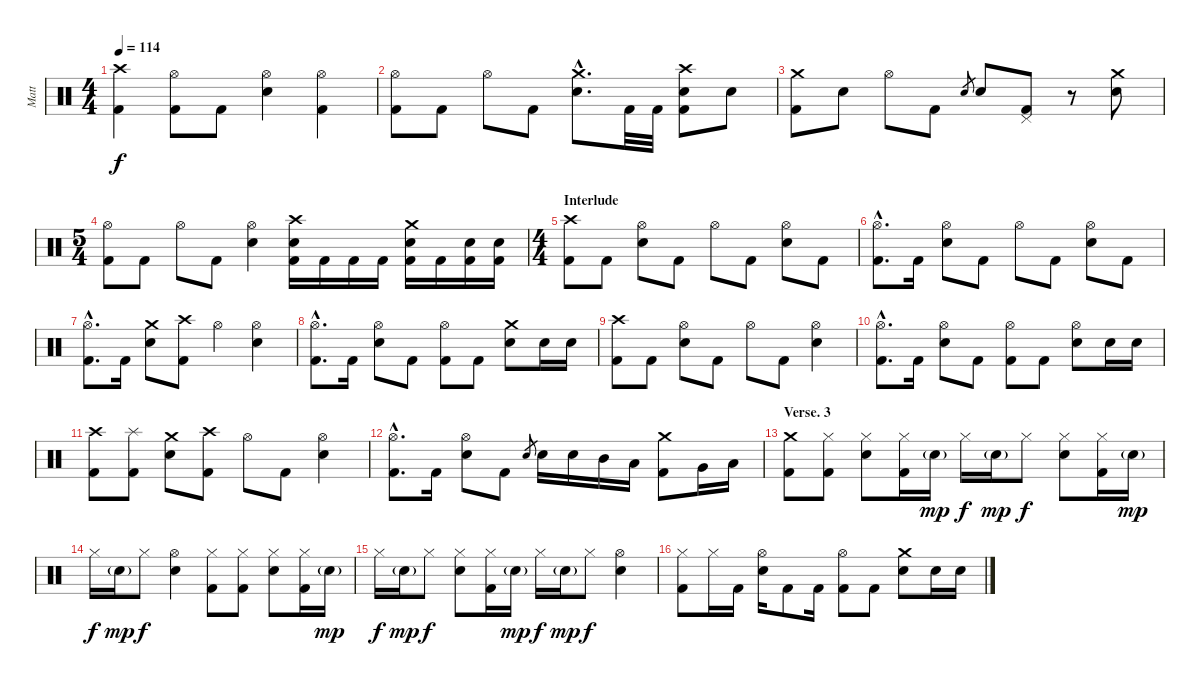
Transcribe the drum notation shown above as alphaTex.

\track ("Matt" "Matt") {instrument percussion}
\staff {score}
\articulation defaults
\ts (4 4)
\tempo 114
\clef neutral
\ks c
("Crash high (hit)" "Kick (hit) 2").4{dy f} ("Hi-Hat (open)" "Kick (hit) 2").8 "Kick (hit) 2".8 ("Hi-Hat (open)" "Electric Snare (hit)").4 ("Hi-Hat (open)" "Kick (hit) 2").4 |
("Hi-Hat (open)" "Kick (hit) 2").8 "Kick (hit) 2".8 "Hi-Hat (open)".8 "Kick (hit) 2".8 ("Crash medium (hit)"{hac} "Electric Snare (hit)"{hac}).8{d} "Kick (hit) 2".32 "Kick (hit) 2".32 ("Crash high (hit)" "Electric Snare (hit)" "Kick (hit) 2").8 "Electric Snare (hit)".8 |
("Crash medium (hit)" "Kick (hit) 2").8 "Electric Snare (hit)".8 "Hi-Hat (open)".8 "Kick (hit) 2".8 "Electric Snare (hit)".8{gr} "Electric Snare (hit)".8 ("Pedal Hi-Hat (hit)" "Kick (hit) 2").8 r.8 ("Crash medium (hit)" "Electric Snare (hit)").8 |
\ts (5 4)
("Hi-Hat (open)" "Kick (hit) 2").8 "Kick (hit) 2".8 "Hi-Hat (open)".8 "Kick (hit) 2".8 ("Hi-Hat (open)" "Electric Snare (hit)").4 ("Crash high (hit)" "Electric Snare (hit)" "Kick (hit) 2").16 "Kick (hit) 2".16 "Kick (hit) 2".16 "Kick (hit) 2".16 ("Crash medium (hit)" "Electric Snare (hit)" "Kick (hit) 2").16 "Kick (hit) 2".16 ("Electric Snare (hit)" "Kick (hit) 2").16 ("Electric Snare (hit)" "Kick (hit) 2").16 |
\ts (4 4)
\section ("" "Interlude")
("Crash high (hit)" "Kick (hit) 2").8 "Kick (hit) 2".8 ("Hi-Hat (open)" "Electric Snare (hit)").8 "Kick (hit) 2".8 "Hi-Hat (open)".8 "Kick (hit) 2".8 ("Hi-Hat (open)" "Electric Snare (hit)").8 "Kick (hit) 2".8 |
("Hi-Hat (open)"{hac} "Kick (hit) 2"{hac}).8{d} "Kick (hit) 2".16 ("Hi-Hat (open)" "Electric Snare (hit)").8 "Kick (hit) 2".8 "Hi-Hat (open)".8 "Kick (hit) 2".8 ("Hi-Hat (open)" "Electric Snare (hit)").8 "Kick (hit) 2".8 |
("Hi-Hat (open)"{hac} "Kick (hit) 2"{hac}).8{d} "Kick (hit) 2".16 ("Crash medium (hit)" "Electric Snare (hit)").8 ("Crash high (hit)" "Kick (hit) 2").8 "Hi-Hat (open)".4 ("Hi-Hat (open)" "Electric Snare (hit)").4 |
("Hi-Hat (open)"{hac} "Kick (hit) 2"{hac}).8{d} "Kick (hit) 2".16 ("Hi-Hat (open)" "Electric Snare (hit)").8 "Kick (hit) 2".8 ("Hi-Hat (open)" "Kick (hit) 2").8 "Kick (hit) 2".8 ("Crash medium (hit)" "Electric Snare (hit)").8 "Electric Snare (hit)".16 "Electric Snare (hit)".16 |
("Crash high (hit)" "Kick (hit) 2").8 "Kick (hit) 2".8 ("Hi-Hat (open)" "Electric Snare (hit)").8 "Kick (hit) 2".8 "Hi-Hat (open)".8 "Kick (hit) 2".8 ("Hi-Hat (open)" "Electric Snare (hit)").4 |
("Hi-Hat (open)"{hac} "Kick (hit) 2"{hac}).8{d} "Kick (hit) 2".16 ("Hi-Hat (open)" "Electric Snare (hit)").8 "Kick (hit) 2".8 ("Hi-Hat (open)" "Kick (hit) 2").8 "Kick (hit) 2".8 ("Hi-Hat (open)" "Electric Snare (hit)").8 "Electric Snare (hit)".16 "Electric Snare (hit)".16 |
("Crash high (hit)" "Kick (hit) 2").8 ("Splash (hit)" "Kick (hit) 2").8 ("Crash medium (hit)" "Electric Snare (hit)").8 ("Crash high (hit)" "Kick (hit) 2").8 "Hi-Hat (open)".8 "Kick (hit) 2".8 ("Hi-Hat (open)" "Electric Snare (hit)").4 |
("Hi-Hat (open)"{hac} "Kick (hit) 2"{hac}).8{d} "Kick (hit) 2".16 ("Hi-Hat (open)" "Electric Snare (hit)").8 "Kick (hit) 2".8 "Electric Snare (hit)".8{gr} "Electric Snare (hit)".16 "Electric Snare (hit)".16 "Mid Tom (hit)".16 "Low Tom (hit)".16 ("Crash medium (hit)" "Kick (hit) 2").8 "Very Low Tom (hit)".16 "Low Floor Tom (hit)".16 |
\section ("" "Verse. 3")
("Crash medium (hit)" "Kick (hit) 2").8 ("Hi-Hat (closed)" "Kick (hit) 2").8 ("Hi-Hat (closed)" "Electric Snare (hit)").8 ("Hi-Hat (closed)" "Kick (hit) 2").16 "Electric Snare (hit)"{g}.16{dy mp} "Hi-Hat (closed)".16{dy f} "Electric Snare (hit)"{g}.16{dy mp} "Hi-Hat (closed)".8{dy f} ("Hi-Hat (closed)" "Electric Snare (hit)").8 ("Hi-Hat (closed)" "Kick (hit) 2").16 "Electric Snare (hit)"{g}.16{dy mp} |
"Hi-Hat (closed)".16{dy f} "Electric Snare (hit)"{g}.16{dy mp} "Hi-Hat (closed)".8{dy f} ("Hi-Hat (open)" "Electric Snare (hit)").4 ("Hi-Hat (closed)" "Kick (hit) 2").8 ("Hi-Hat (closed)" "Kick (hit) 2").8 ("Hi-Hat (closed)" "Electric Snare (hit)").8 ("Hi-Hat (closed)" "Kick (hit) 2").16 "Electric Snare (hit)"{g}.16{dy mp} |
"Hi-Hat (closed)".16{dy f} "Electric Snare (hit)"{g}.16{dy mp} "Hi-Hat (closed)".8{dy f} ("Hi-Hat (closed)" "Electric Snare (hit)").8 ("Hi-Hat (closed)" "Kick (hit) 2").16 "Electric Snare (hit)"{g}.16{dy mp} "Hi-Hat (closed)".16{dy f} "Electric Snare (hit)"{g}.16{dy mp} "Hi-Hat (closed)".8{dy f} ("Hi-Hat (open)" "Electric Snare (hit)").4 |
("Hi-Hat (closed)" "Kick (hit) 2").8 "Hi-Hat (closed)".16 "Kick (hit) 2".16 ("Hi-Hat (open)" "Electric Snare (hit)").16 "Kick (hit) 2".8 "Kick (hit) 2".16 ("Hi-Hat (open)" "Kick (hit) 2").8 "Kick (hit) 2".8 ("Crash medium (hit)" "Electric Snare (hit)").8 "Electric Snare (hit)".16 "Electric Snare (hit)".16
